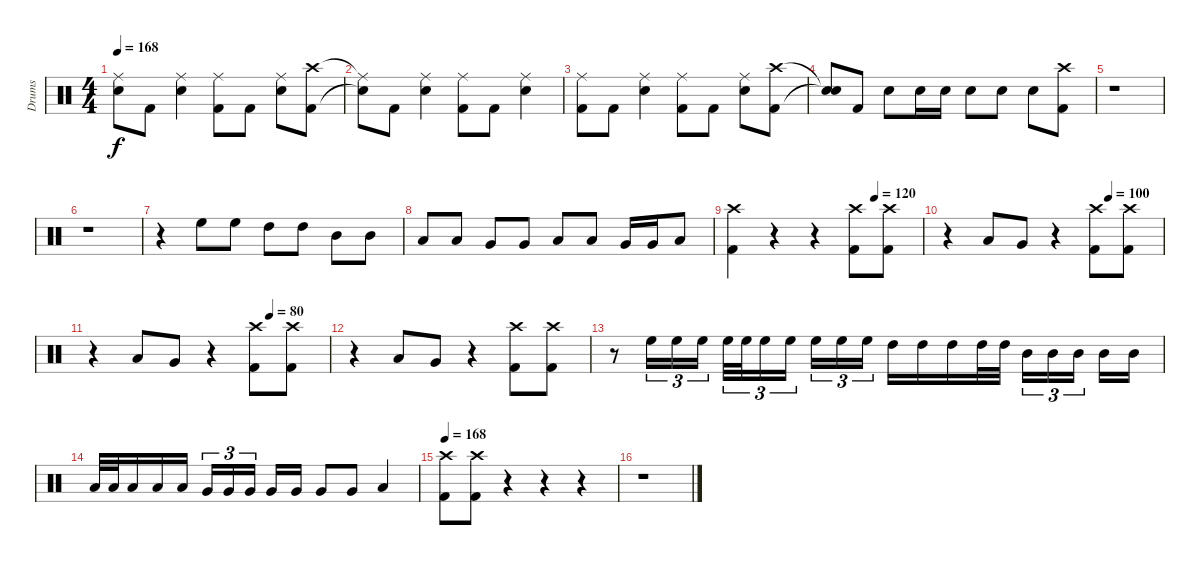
\track ("Drums" "Drums") {instrument percussion}
\staff {score}
\articulation defaults
\ts (4 4)
\tempo 168
\clef neutral
\ks c
("Ride (middle)"{t} "Snare (hit)"{t}).8{dy f} "Kick (hit) 2".8 ("Ride (middle)" "Electric Snare (hit)").4 ("Ride (middle)" "Kick (hit) 2").8 "Kick (hit) 2".8 ("Ride (middle)" "Electric Snare (hit)").8 ("Crash high (hit)" "Kick (hit) 2").8 |
("Ride (middle)"{t} "Snare (hit)"{t}).8 "Kick (hit) 2".8 ("Ride (middle)" "Electric Snare (hit)").4 ("Ride (middle)" "Kick (hit) 2").8 "Kick (hit) 2".8 ("Ride (middle)" "Electric Snare (hit)").4 |
("Ride (middle)" "Kick (hit) 2").8 "Kick (hit) 2".8 ("Ride (middle)" "Electric Snare (hit)").4 ("Ride (middle)" "Kick (hit) 2").8 "Kick (hit) 2".8 ("Ride (middle)" "Electric Snare (hit)").8 ("Crash high (hit)" "Kick (hit) 2").8 |
("Snare (hit)"{t} "Snare (hit)"{t}).8 "Kick (hit) 2".8 "Electric Snare (hit)".8 "Electric Snare (hit)".16 "Electric Snare (hit)".16 "Electric Snare (hit)".8 "Electric Snare (hit)".8 "Electric Snare (hit)".8 ("Crash high (hit)" "Kick (hit) 2").8 |
r.1 |
r.1 |
r.4 "High Floor Tom (hit)".8 "High Floor Tom (hit)".8 "High Tom (hit)".8 "High Tom (hit)".8 "Mid Tom (hit)".8 "Mid Tom (hit)".8 |
"Low Tom (hit)".8 "Low Tom (hit)".8 "Very Low Tom (hit)".8 "Very Low Tom (hit)".8 "Low Floor Tom (hit)".8 "Low Floor Tom (hit)".8 "Very Low Tom (hit)".16 "Very Low Tom (hit)".16 "Low Floor Tom (hit)".8 |
\tempo (120 0.75)
("Crash high (hit)" "Kick (hit) 2").4 r.4 r.4 ("Crash high (hit)" "Kick (hit) 2").8 ("Crash high (hit)" "Kick (hit) 2").8 |
\tempo (100 0.75)
r.4 "Low Tom (hit)".8 "Very Low Tom (hit)".8 r.4 ("Crash high (hit)" "Kick (hit) 2").8 ("Crash high (hit)" "Kick (hit) 2").8 |
\tempo (80 0.75)
r.4 "Low Tom (hit)".8 "Very Low Tom (hit)".8 r.4 ("Crash high (hit)" "Kick (hit) 2").8 ("Crash high (hit)" "Kick (hit) 2").8 |
r.4 "Low Tom (hit)".8 "Very Low Tom (hit)".8 r.4 ("Crash high (hit)" "Kick (hit) 2").8 ("Crash high (hit)" "Kick (hit) 2").8 |
r.8 "High Floor Tom (hit)".16{tu (3 2)} "High Floor Tom (hit)".16{tu (3 2)} "High Floor Tom (hit)".16{tu (3 2)} "High Floor Tom (hit)".32{tu (3 2)} "High Floor Tom (hit)".32{tu (3 2)} "High Floor Tom (hit)".16{tu (3 2)} "High Floor Tom (hit)".16{tu (3 2)} "High Floor Tom (hit)".16{tu (3 2)} "High Floor Tom (hit)".16{tu (3 2)} "High Floor Tom (hit)".16{tu (3 2)} "High Tom (hit)".16 "High Tom (hit)".16 "High Tom (hit)".16 "High Tom (hit)".32 "High Tom (hit)".32 "Mid Tom (hit)".16{tu (3 2)} "Mid Tom (hit)".16{tu (3 2)} "Mid Tom (hit)".16{tu (3 2)} "Mid Tom (hit)".16 "Mid Tom (hit)".16 |
"Low Tom (hit)".32 "Low Tom (hit)".32 "Low Tom (hit)".16 "Low Tom (hit)".16 "Low Tom (hit)".16 "Very Low Tom (hit)".16{tu (3 2)} "Very Low Tom (hit)".16{tu (3 2)} "Very Low Tom (hit)".16{tu (3 2)} "Very Low Tom (hit)".16 "Very Low Tom (hit)".16 "Very Low Tom (hit)".8 "Very Low Tom (hit)".8 "Low Floor Tom (hit)".4 |
\tempo 168
("Crash high (hit)" "Kick (hit) 2").8 ("Crash high (hit)" "Kick (hit) 2").8 r.4 r.4 r.4 |
r.1
